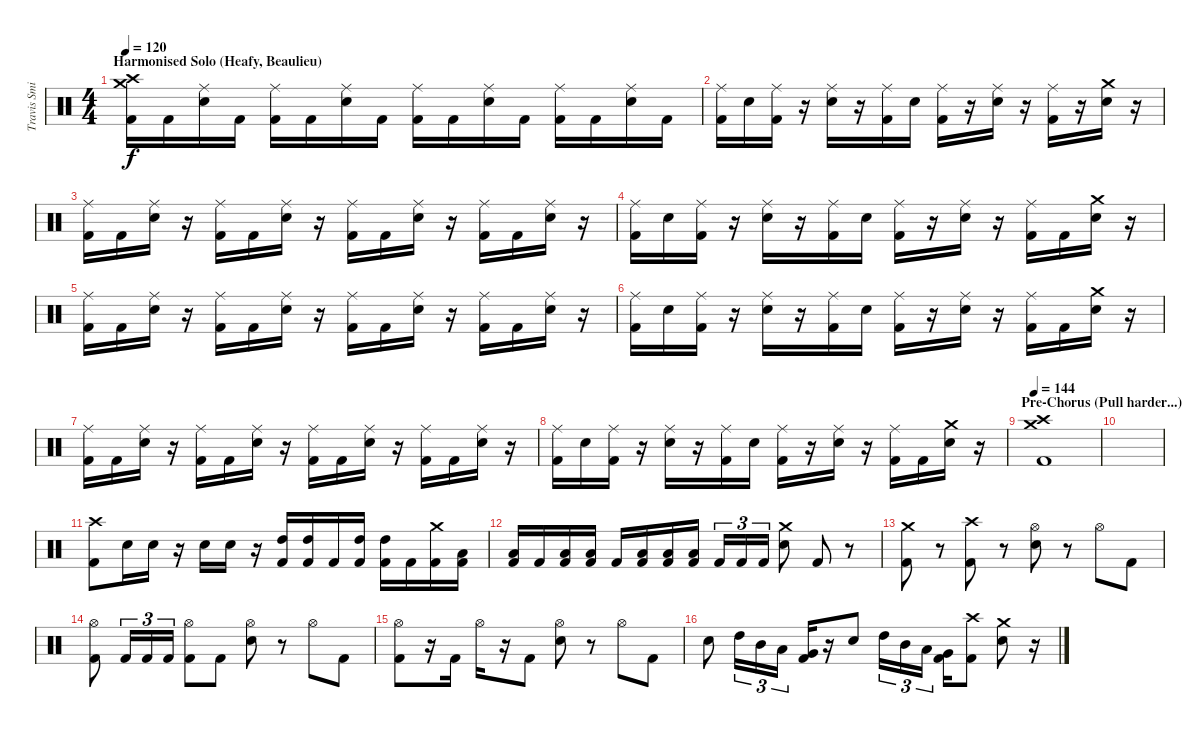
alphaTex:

\track ("Travis Smith" "Travis Smi") {instrument percussion}
\staff {score}
\articulation defaults
\ts (4 4)
\section ("" "Harmonised Solo (Heafy, Beaulieu)")
\tempo 120
\clef neutral
\ks c
("Crash high (hit)" "Crash medium (hit)" "Kick (hit) 2").16{dy f} "Kick (hit) 2".16 ("Ride (middle)" "Electric Snare (hit)").16 "Kick (hit) 2".16 ("Ride (middle)" "Kick (hit) 2").16 "Kick (hit) 2".16 ("Ride (middle)" "Electric Snare (hit)").16 "Kick (hit) 2".16 ("Ride (middle)" "Kick (hit) 2").16 "Kick (hit) 2".16 ("Ride (middle)" "Electric Snare (hit)").16 "Kick (hit) 2".16 ("Ride (middle)" "Kick (hit) 2").16 "Kick (hit) 2".16 ("Ride (middle)" "Electric Snare (hit)").16 "Kick (hit) 2".16 |
("Ride (middle)" "Kick (hit) 2").16 "Electric Snare (hit)".16 ("Ride (middle)" "Kick (hit) 2").16 r.16 ("Ride (middle)" "Electric Snare (hit)").16 r.16 ("Ride (middle)" "Kick (hit) 2").16 "Electric Snare (hit)".16 ("Ride (middle)" "Kick (hit) 2").16 r.16 ("Ride (middle)" "Electric Snare (hit)").16 r.16 ("Ride (middle)" "Kick (hit) 2").16 r.16 ("Crash medium (hit)" "Electric Snare (hit)").16 r.16 |
("Ride (middle)" "Kick (hit) 2").16 "Kick (hit) 2".16 ("Ride (middle)" "Electric Snare (hit)").16 r.16 ("Ride (middle)" "Kick (hit) 2").16 "Kick (hit) 2".16 ("Ride (middle)" "Electric Snare (hit)").16 r.16 ("Ride (middle)" "Kick (hit) 2").16 "Kick (hit) 2".16 ("Ride (middle)" "Electric Snare (hit)").16 r.16 ("Ride (middle)" "Kick (hit) 2").16 "Kick (hit) 2".16 ("Ride (middle)" "Electric Snare (hit)").16 r.16 |
("Ride (middle)" "Kick (hit) 2").16 "Electric Snare (hit)".16 ("Ride (middle)" "Kick (hit) 2").16 r.16 ("Ride (middle)" "Electric Snare (hit)").16 r.16 ("Ride (middle)" "Kick (hit) 2").16 "Electric Snare (hit)".16 ("Ride (middle)" "Kick (hit) 2").16 r.16 ("Ride (middle)" "Electric Snare (hit)").16 r.16 ("Ride (middle)" "Kick (hit) 2").16 "Kick (hit) 2".16 ("Crash medium (hit)" "Electric Snare (hit)").16 r.16 |
("Ride (middle)" "Kick (hit) 2").16 "Kick (hit) 2".16 ("Ride (middle)" "Electric Snare (hit)").16 r.16 ("Ride (middle)" "Kick (hit) 2").16 "Kick (hit) 2".16 ("Ride (middle)" "Electric Snare (hit)").16 r.16 ("Ride (middle)" "Kick (hit) 2").16 "Kick (hit) 2".16 ("Ride (middle)" "Electric Snare (hit)").16 r.16 ("Ride (middle)" "Kick (hit) 2").16 "Kick (hit) 2".16 ("Ride (middle)" "Electric Snare (hit)").16 r.16 |
("Ride (middle)" "Kick (hit) 2").16 "Electric Snare (hit)".16 ("Ride (middle)" "Kick (hit) 2").16 r.16 ("Ride (middle)" "Electric Snare (hit)").16 r.16 ("Ride (middle)" "Kick (hit) 2").16 "Electric Snare (hit)".16 ("Ride (middle)" "Kick (hit) 2").16 r.16 ("Ride (middle)" "Electric Snare (hit)").16 r.16 ("Ride (middle)" "Kick (hit) 2").16 "Kick (hit) 2".16 ("Crash medium (hit)" "Electric Snare (hit)").16 r.16 |
("Ride (middle)" "Kick (hit) 2").16 "Kick (hit) 2".16 ("Ride (middle)" "Electric Snare (hit)").16 r.16 ("Ride (middle)" "Kick (hit) 2").16 "Kick (hit) 2".16 ("Ride (middle)" "Electric Snare (hit)").16 r.16 ("Ride (middle)" "Kick (hit) 2").16 "Kick (hit) 2".16 ("Ride (middle)" "Electric Snare (hit)").16 r.16 ("Ride (middle)" "Kick (hit) 2").16 "Kick (hit) 2".16 ("Ride (middle)" "Electric Snare (hit)").16 r.16 |
("Ride (middle)" "Kick (hit) 2").16 "Electric Snare (hit)".16 ("Ride (middle)" "Kick (hit) 2").16 r.16 ("Ride (middle)" "Electric Snare (hit)").16 r.16 ("Ride (middle)" "Kick (hit) 2").16 "Electric Snare (hit)".16 ("Ride (middle)" "Kick (hit) 2").16 r.16 ("Ride (middle)" "Electric Snare (hit)").16 r.16 ("Ride (middle)" "Kick (hit) 2").16 "Kick (hit) 2".16 ("Crash medium (hit)" "Electric Snare (hit)").16 r.16 |
\section ("" "Pre-Chorus (Pull harder...)")
\tempo 144
("Crash medium (hit)" "Crash high (hit)" "Kick (hit) 2").1 |
|
("Crash high (hit)" "Kick (hit) 2").8 "Electric Snare (hit)".16 "Electric Snare (hit)".16 r.16 "Electric Snare (hit)".16 "Electric Snare (hit)".16 r.16 ("High Tom (hit)" "Kick (hit) 2").16 ("High Tom (hit)" "Kick (hit) 2").16 "Kick (hit) 2".16 ("High Tom (hit)" "Kick (hit) 2").16 ("High Tom (hit)" "Kick (hit) 2").16 "Kick (hit) 2".16 ("Crash medium (hit)" "Kick (hit) 2").16 ("Low Tom (hit)" "Kick (hit) 2").16 |
("Low Tom (hit)" "Kick (hit) 2").16 "Kick (hit) 2".16 ("Low Tom (hit)" "Kick (hit) 2").16 ("Low Tom (hit)" "Kick (hit) 2").16 "Kick (hit) 2".16 ("Low Floor Tom (hit)" "Kick (hit) 2").16 ("Low Floor Tom (hit)" "Kick (hit) 2").16 ("Low Floor Tom (hit)" "Kick (hit) 2").16 "Kick (hit) 2".16{tu (3 2)} "Kick (hit) 2".16{tu (3 2)} "Kick (hit) 2".16{tu (3 2)} ("Crash medium (hit)" "Electric Snare (hit)").8 "Kick (hit) 2".8 r.8 |
("Crash medium (hit)" "Kick (hit) 2").8 r.8 ("Crash high (hit)" "Kick (hit) 2").8 r.8 ("Hi-Hat (open)" "Electric Snare (hit)").8 r.8 "Hi-Hat (open)".8 "Kick (hit) 2".8 |
("Hi-Hat (open)" "Kick (hit) 2").8 "Kick (hit) 2".16{tu (3 2)} "Kick (hit) 2".16{tu (3 2)} "Kick (hit) 2".16{tu (3 2)} ("Hi-Hat (open)" "Kick (hit) 2").8 "Kick (hit) 2".8 ("Hi-Hat (open)" "Electric Snare (hit)").8 r.8 "Hi-Hat (open)".8 "Kick (hit) 2".8 |
("Hi-Hat (open)" "Kick (hit) 2").8 r.16 "Kick (hit) 2".16 "Hi-Hat (open)".16 r.16 "Kick (hit) 2".8 ("Hi-Hat (open)" "Electric Snare (hit)").8 r.8 "Hi-Hat (open)".8 "Kick (hit) 2".8 |
"Electric Snare (hit)".8 "High Tom (hit)".16{tu (3 2)} "Mid Tom (hit)".16{tu (3 2)} "Low Tom (hit)".16{tu (3 2)} ("Very Low Tom (hit)" "Kick (hit) 2").16 r.16 "Electric Snare (hit)".8 "High Tom (hit)".16{tu (3 2)} "Mid Tom (hit)".16{tu (3 2)} "Low Tom (hit)".16{tu (3 2)} ("Very Low Tom (hit)" "Kick (hit) 2").16 ("Crash high (hit)" "Kick (hit) 2").8 ("Crash medium (hit)" "Electric Snare (hit)").8 r.16
